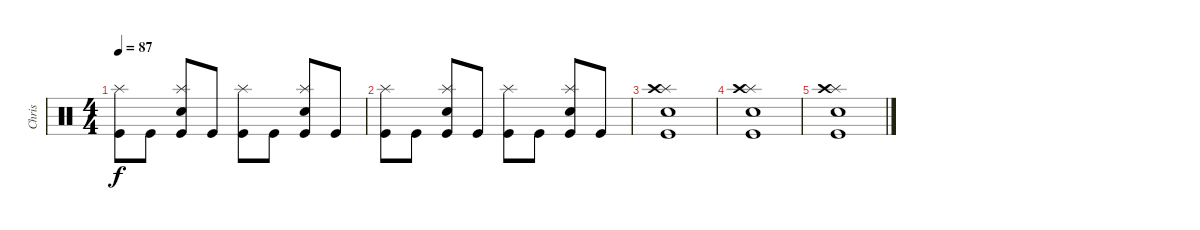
\track ("Chris" "Chris") {instrument percussion}
\staff {score}
\articulation defaults
\ts (4 4)
\tempo 87
\clef neutral
\ks c
("Kick (hit)" "Splash (hit)").8{dy f} "Kick (hit)".8 ("Kick (hit)" "Splash (hit)" "Snare (hit) 2").8 "Kick (hit)".8 ("Kick (hit)" "Splash (hit)").8 "Kick (hit)".8 ("Kick (hit)" "Splash (hit)" "Snare (hit) 2").8 "Kick (hit)".8 |
("Kick (hit)" "Splash (hit)").8 "Kick (hit)".8 ("Kick (hit)" "Splash (hit)" "Snare (hit) 2").8 "Kick (hit)".8 ("Kick (hit)" "Splash (hit)").8 "Kick (hit)".8 ("Kick (hit)" "Splash (hit)" "Snare (hit) 2").8 "Kick (hit)".8 |
("Kick (hit)" "Splash (hit)" "Crash high (hit)" "Snare (hit) 2").1 |
("Kick (hit)" "Splash (hit)" "Crash high (hit)" "Snare (hit) 2").1 |
("Kick (hit)" "Splash (hit)" "Crash high (hit)" "Snare (hit) 2").1
